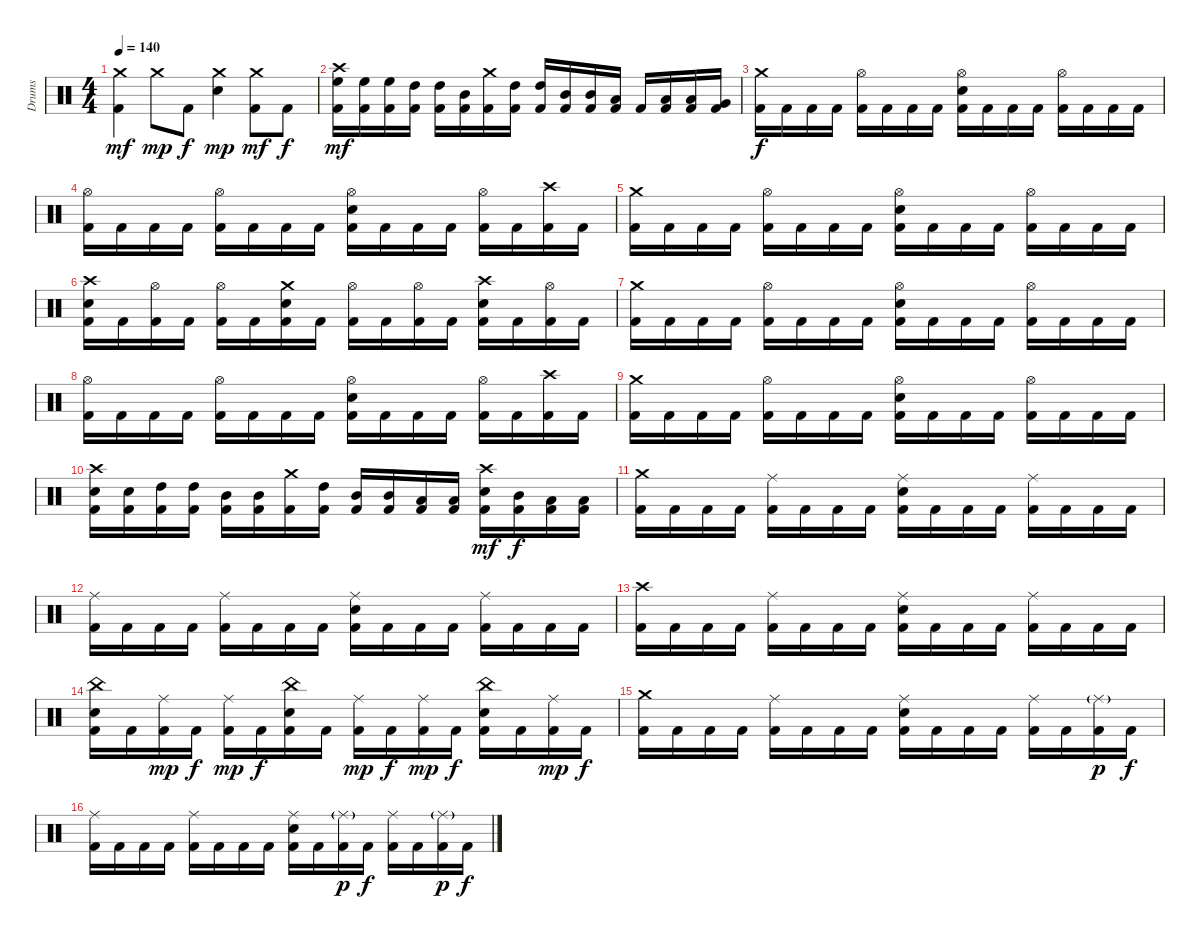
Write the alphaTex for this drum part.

\track ("Drums" "Drums") {instrument percussion}
\staff {score}
\articulation defaults
\ts (4 4)
\tempo 140
\clef neutral
\ks c
("Crash medium (hit)" "Kick (hit) 2").4{dy mf} "Crash medium (hit)".8{dy mp} "Kick (hit) 2".8{dy f} ("Crash medium (hit)" "Electric Snare (hit)").4{dy mp} ("Crash medium (hit)" "Kick (hit) 2").8{dy mf} "Kick (hit) 2".8{dy f} |
("Crash high (hit)" "High Floor Tom (hit)" "Kick (hit) 2").16{dy mf} ("High Floor Tom (hit)" "Kick (hit) 2").16 ("High Floor Tom (hit)" "Kick (hit) 2").16 ("High Tom (hit)" "Kick (hit) 2").16 ("High Tom (hit)" "Kick (hit) 2").16 ("Mid Tom (hit)" "Kick (hit) 2").16 ("Crash medium (hit)" "Kick (hit) 2").16 ("High Tom (hit)" "Kick (hit) 2").16 ("High Tom (hit)" "Kick (hit) 2").16 ("Mid Tom (hit)" "Kick (hit) 2").16 ("Mid Tom (hit)" "Kick (hit) 2").16 ("Low Tom (hit)" "Kick (hit) 2").16 "Kick (hit) 2".16 ("Low Tom (hit)" "Kick (hit) 2").16 ("Low Tom (hit)" "Kick (hit) 2").16 ("Very Low Tom (hit)" "Kick (hit) 2").16 |
("Crash medium (hit)" "Kick (hit) 2").16{dy f} "Kick (hit) 2".16 "Kick (hit) 2".16 "Kick (hit) 2".16 ("Hi-Hat (open)" "Kick (hit) 2").16 "Kick (hit) 2".16 "Kick (hit) 2".16 "Kick (hit) 2".16 ("Hi-Hat (open)" "Electric Snare (hit)" "Kick (hit) 2").16 "Kick (hit) 2".16 "Kick (hit) 2".16 "Kick (hit) 2".16 ("Hi-Hat (open)" "Kick (hit) 2").16 "Kick (hit) 2".16 "Kick (hit) 2".16 "Kick (hit) 2".16 |
("Hi-Hat (open)" "Kick (hit) 2").16 "Kick (hit) 2".16 "Kick (hit) 2".16 "Kick (hit) 2".16 ("Hi-Hat (open)" "Kick (hit) 2").16 "Kick (hit) 2".16 "Kick (hit) 2".16 "Kick (hit) 2".16 ("Hi-Hat (open)" "Electric Snare (hit)" "Kick (hit) 2").16 "Kick (hit) 2".16 "Kick (hit) 2".16 "Kick (hit) 2".16 ("Hi-Hat (open)" "Kick (hit) 2").16 "Kick (hit) 2".16 ("Crash high (hit)" "Kick (hit) 2").16 "Kick (hit) 2".16 |
("Crash medium (hit)" "Kick (hit) 2").16 "Kick (hit) 2".16 "Kick (hit) 2".16 "Kick (hit) 2".16 ("Hi-Hat (open)" "Kick (hit) 2").16 "Kick (hit) 2".16 "Kick (hit) 2".16 "Kick (hit) 2".16 ("Hi-Hat (open)" "Electric Snare (hit)" "Kick (hit) 2").16 "Kick (hit) 2".16 "Kick (hit) 2".16 "Kick (hit) 2".16 ("Hi-Hat (open)" "Kick (hit) 2").16 "Kick (hit) 2".16 "Kick (hit) 2".16 "Kick (hit) 2".16 |
("Crash high (hit)" "Electric Snare (hit)" "Kick (hit) 2").16 "Kick (hit) 2".16 ("Hi-Hat (open)" "Kick (hit) 2").16 "Kick (hit) 2".16 ("Hi-Hat (open)" "Kick (hit) 2").16 "Kick (hit) 2".16 ("Crash medium (hit)" "Electric Snare (hit)" "Kick (hit) 2").16 "Kick (hit) 2".16 ("Hi-Hat (open)" "Kick (hit) 2").16 "Kick (hit) 2".16 ("Hi-Hat (open)" "Kick (hit) 2").16 "Kick (hit) 2".16 ("Crash high (hit)" "Electric Snare (hit)" "Kick (hit) 2").16 "Kick (hit) 2".16 ("Hi-Hat (open)" "Kick (hit) 2").16 "Kick (hit) 2".16 |
("Crash medium (hit)" "Kick (hit) 2").16 "Kick (hit) 2".16 "Kick (hit) 2".16 "Kick (hit) 2".16 ("Hi-Hat (open)" "Kick (hit) 2").16 "Kick (hit) 2".16 "Kick (hit) 2".16 "Kick (hit) 2".16 ("Hi-Hat (open)" "Electric Snare (hit)" "Kick (hit) 2").16 "Kick (hit) 2".16 "Kick (hit) 2".16 "Kick (hit) 2".16 ("Hi-Hat (open)" "Kick (hit) 2").16 "Kick (hit) 2".16 "Kick (hit) 2".16 "Kick (hit) 2".16 |
("Hi-Hat (open)" "Kick (hit) 2").16 "Kick (hit) 2".16 "Kick (hit) 2".16 "Kick (hit) 2".16 ("Hi-Hat (open)" "Kick (hit) 2").16 "Kick (hit) 2".16 "Kick (hit) 2".16 "Kick (hit) 2".16 ("Hi-Hat (open)" "Electric Snare (hit)" "Kick (hit) 2").16 "Kick (hit) 2".16 "Kick (hit) 2".16 "Kick (hit) 2".16 ("Hi-Hat (open)" "Kick (hit) 2").16 "Kick (hit) 2".16 ("Crash high (hit)" "Kick (hit) 2").16 "Kick (hit) 2".16 |
("Crash medium (hit)" "Kick (hit) 2").16 "Kick (hit) 2".16 "Kick (hit) 2".16 "Kick (hit) 2".16 ("Hi-Hat (open)" "Kick (hit) 2").16 "Kick (hit) 2".16 "Kick (hit) 2".16 "Kick (hit) 2".16 ("Hi-Hat (open)" "Electric Snare (hit)" "Kick (hit) 2").16 "Kick (hit) 2".16 "Kick (hit) 2".16 "Kick (hit) 2".16 ("Hi-Hat (open)" "Kick (hit) 2").16 "Kick (hit) 2".16 "Kick (hit) 2".16 "Kick (hit) 2".16 |
("Crash high (hit)" "Electric Snare (hit)" "Kick (hit) 2").16 ("Electric Snare (hit)" "Kick (hit) 2").16 ("High Tom (hit)" "Kick (hit) 2").16 ("High Tom (hit)" "Kick (hit) 2").16 ("Mid Tom (hit)" "Kick (hit) 2").16 ("Mid Tom (hit)" "Kick (hit) 2").16 ("Crash medium (hit)" "Kick (hit) 2").16 ("High Tom (hit)" "Kick (hit) 2").16 ("Mid Tom (hit)" "Kick (hit) 2").16 ("Mid Tom (hit)" "Kick (hit) 2").16 ("Low Tom (hit)" "Kick (hit) 2").16 ("Low Tom (hit)" "Kick (hit) 2").16 ("Crash high (hit)" "Electric Snare (hit)" "Kick (hit) 2").16{dy mf} ("Mid Tom (hit)" "Kick (hit) 2").16{dy f} ("Low Tom (hit)" "Kick (hit) 2").16 ("Low Tom (hit)" "Kick (hit) 2").16 |
("Crash medium (hit)" "Kick (hit) 2").16 "Kick (hit) 2".16 "Kick (hit) 2".16 "Kick (hit) 2".16 ("Ride (middle)" "Kick (hit) 2").16 "Kick (hit) 2".16 "Kick (hit) 2".16 "Kick (hit) 2".16 ("Ride (middle)" "Electric Snare (hit)" "Kick (hit) 2").16 "Kick (hit) 2".16 "Kick (hit) 2".16 "Kick (hit) 2".16 ("Ride (middle)" "Kick (hit) 2").16 "Kick (hit) 2".16 "Kick (hit) 2".16 "Kick (hit) 2".16 |
("Ride (middle)" "Kick (hit) 2").16 "Kick (hit) 2".16 "Kick (hit) 2".16 "Kick (hit) 2".16 ("Ride (middle)" "Kick (hit) 2").16 "Kick (hit) 2".16 "Kick (hit) 2".16 "Kick (hit) 2".16 ("Ride (middle)" "Electric Snare (hit)" "Kick (hit) 2").16 "Kick (hit) 2".16 "Kick (hit) 2".16 "Kick (hit) 2".16 ("Ride (middle)" "Kick (hit) 2").16 "Kick (hit) 2".16 "Kick (hit) 2".16 "Kick (hit) 2".16 |
("Crash high (hit)" "Kick (hit) 2").16 "Kick (hit) 2".16 "Kick (hit) 2".16 "Kick (hit) 2".16 ("Ride (middle)" "Kick (hit) 2").16 "Kick (hit) 2".16 "Kick (hit) 2".16 "Kick (hit) 2".16 ("Ride (middle)" "Electric Snare (hit)" "Kick (hit) 2").16 "Kick (hit) 2".16 "Kick (hit) 2".16 "Kick (hit) 2".16 ("Ride (middle)" "Kick (hit) 2").16 "Kick (hit) 2".16 "Kick (hit) 2".16 "Kick (hit) 2".16 |
("China (hit)" "Electric Snare (hit)" "Kick (hit) 2").16 "Kick (hit) 2".16 ("Ride (middle)" "Kick (hit) 2").16{dy mp} "Kick (hit) 2".16{dy f} ("Ride (middle)" "Kick (hit) 2").16{dy mp} "Kick (hit) 2".16{dy f} ("China (hit)" "Electric Snare (hit)" "Kick (hit) 2").16 "Kick (hit) 2".16 ("Ride (middle)" "Kick (hit) 2").16{dy mp} "Kick (hit) 2".16{dy f} ("Ride (middle)" "Kick (hit) 2").16{dy mp} "Kick (hit) 2".16{dy f} ("China (hit)" "Electric Snare (hit)" "Kick (hit) 2").16 "Kick (hit) 2".16 ("Ride (middle)" "Kick (hit) 2").16{dy mp} "Kick (hit) 2".16{dy f} |
("Crash medium (hit)" "Kick (hit) 2").16 "Kick (hit) 2".16 "Kick (hit) 2".16 "Kick (hit) 2".16 ("Ride (middle)" "Kick (hit) 2").16 "Kick (hit) 2".16 "Kick (hit) 2".16 "Kick (hit) 2".16 ("Ride (middle)" "Electric Snare (hit)" "Kick (hit) 2").16 "Kick (hit) 2".16 "Kick (hit) 2".16 "Kick (hit) 2".16 ("Ride (middle)" "Kick (hit) 2").16 "Kick (hit) 2".16 ("Ride (middle)"{g} "Kick (hit) 2").16{dy p} "Kick (hit) 2".16{dy f} |
("Ride (middle)" "Kick (hit) 2").16 "Kick (hit) 2".16 "Kick (hit) 2".16 "Kick (hit) 2".16 ("Ride (middle)" "Kick (hit) 2").16 "Kick (hit) 2".16 "Kick (hit) 2".16 "Kick (hit) 2".16 ("Ride (middle)" "Electric Snare (hit)" "Kick (hit) 2").16 "Kick (hit) 2".16 ("Ride (middle)"{g} "Kick (hit) 2").16{dy p} "Kick (hit) 2".16{dy f} ("Ride (middle)" "Kick (hit) 2").16 "Kick (hit) 2".16 ("Ride (middle)"{g} "Kick (hit) 2").16{dy p} "Kick (hit) 2".16{dy f}
